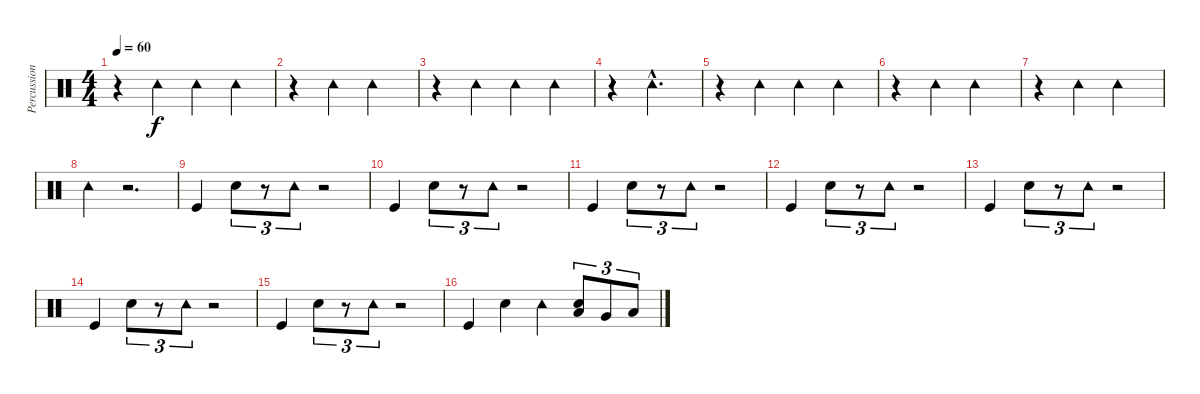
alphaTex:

\track ("Percussion" "Percussion") {instrument percussion}
\staff {score}
\articulation defaults
\ts (4 4)
\tempo 60
\clef neutral
\ks c
r.4{dy f} "Tambourine (hit)".4 "Tambourine (hit)".4 "Tambourine (hit)".4 |
r.4 "Tambourine (hit)".4 "Tambourine (hit)".2 |
r.4 "Tambourine (hit)".4 "Tambourine (hit)".4 "Tambourine (hit)".4 |
r.4 "Tambourine (hit)"{hac}.2{d} |
r.4 "Tambourine (hit)".4 "Tambourine (hit)".4 "Tambourine (hit)".4 |
r.4 "Tambourine (hit)".4 "Tambourine (hit)".2 |
r.4 "Tambourine (hit)".4 "Tambourine (hit)".2 |
"Tambourine (hit)".4 r.2{d} |
"Kick (hit)".4 "Electric Snare (hit)".8{tu (3 2)} r.8{tu (3 2)} "Tambourine (hit)".8{tu (3 2)} r.2 |
"Kick (hit)".4 "Electric Snare (hit)".8{tu (3 2)} r.8{tu (3 2)} "Tambourine (hit)".8{tu (3 2)} r.2 |
"Kick (hit)".4 "Electric Snare (hit)".8{tu (3 2)} r.8{tu (3 2)} "Tambourine (hit)".8{tu (3 2)} r.2 |
"Kick (hit)".4 "Electric Snare (hit)".8{tu (3 2)} r.8{tu (3 2)} "Tambourine (hit)".8{tu (3 2)} r.2 |
"Kick (hit)".4 "Electric Snare (hit)".8{tu (3 2)} r.8{tu (3 2)} "Tambourine (hit)".8{tu (3 2)} r.2 |
"Kick (hit)".4 "Electric Snare (hit)".8{tu (3 2)} r.8{tu (3 2)} "Tambourine (hit)".8{tu (3 2)} r.2 |
"Kick (hit)".4 "Electric Snare (hit)".8{tu (3 2)} r.8{tu (3 2)} "Tambourine (hit)".8{tu (3 2)} r.2 |
"Kick (hit)".4 "Electric Snare (hit)".4 "Tambourine (hit)".4 ("Electric Snare (hit)" "Low Tom (hit)").8{tu (3 2)} "Very Low Tom (hit)".8{tu (3 2)} "Low Floor Tom (hit)".8{tu (3 2)}
